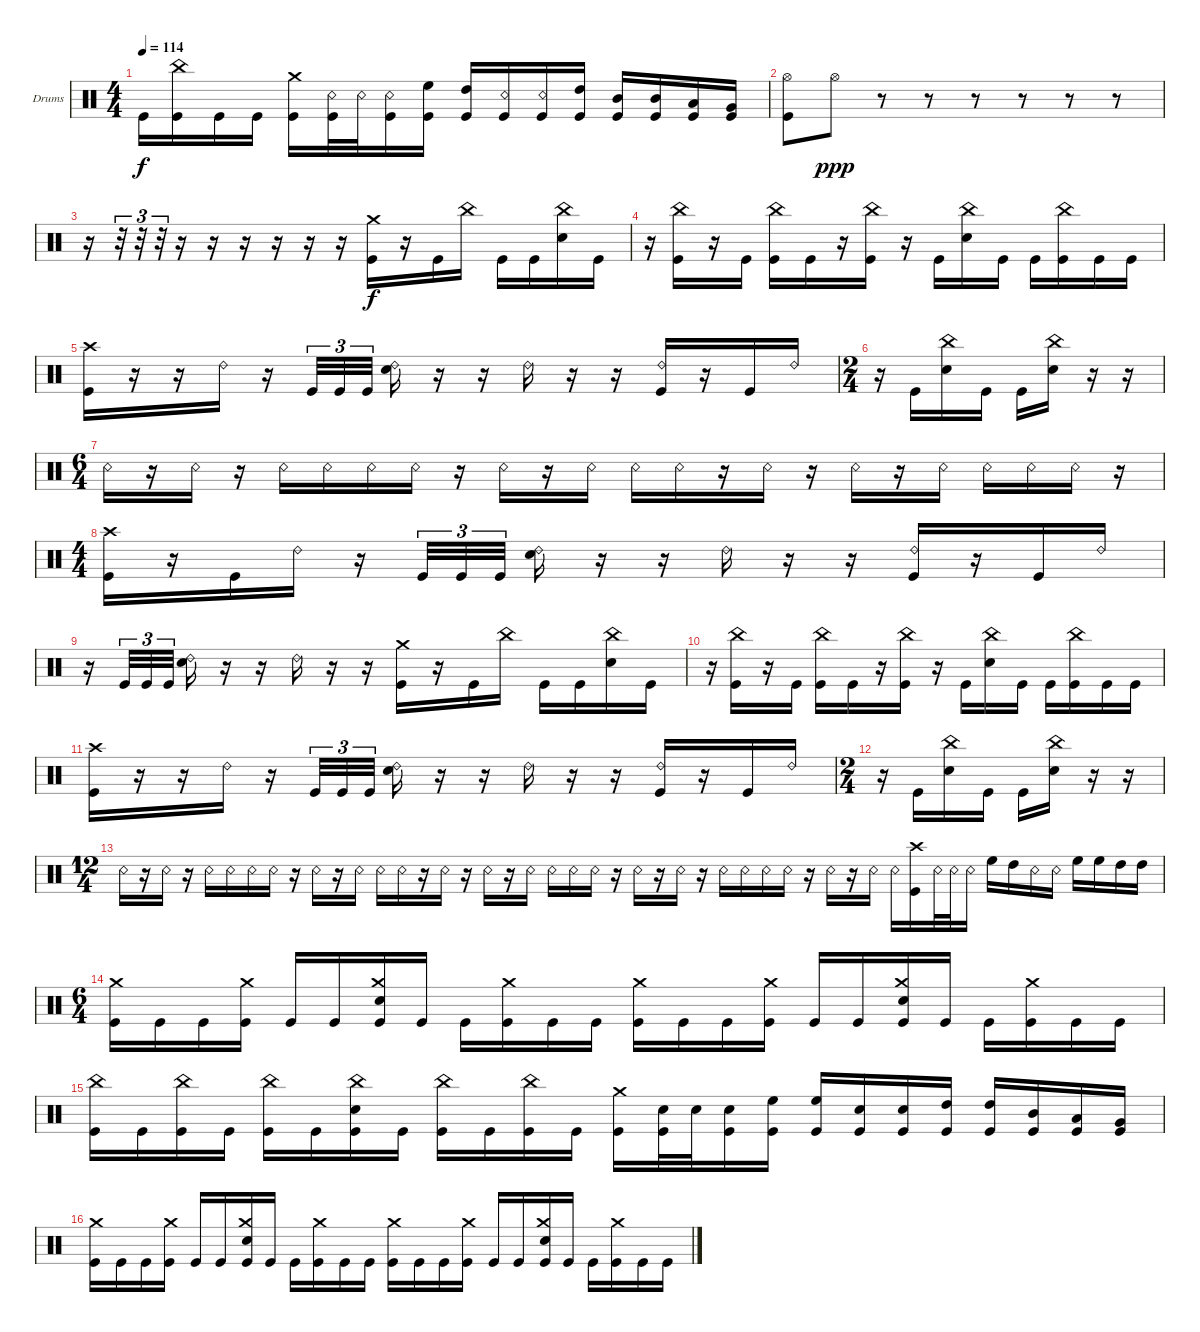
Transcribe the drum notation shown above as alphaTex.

\bracketExtendMode groupsimilarinstruments
\firstSystemTrackNameOrientation horizontal
\otherSystemsTrackNameOrientation horizontal
\track ("Drumkit" "Drums") {instrument percussion}
\staff {score}
\articulation defaults
\ts (4 4)
\tempo 114
\clef neutral
\ks c "Kick (hit)".16{dy f}
("China (hit)" "Kick (hit)").16 "Kick (hit)".16 "Kick (hit)".16 ("Crash medium (hit)" "Kick (hit)").16 ("Snare (rim shot)" "Kick (hit)").32 "Snare (rim shot)".32 ("Snare (rim shot)" "Kick (hit)").16 ("High Floor Tom (hit)" "Kick (hit)").16 ("High Tom (hit)" "Kick (hit)").16 ("Snare (rim shot)" "Kick (hit)").16 ("Snare (rim shot)" "Kick (hit)").16 ("High Tom (hit)" "Kick (hit)").16 ("Mid Tom (hit)" "Kick (hit)").16 ("Mid Tom (hit)" "Kick (hit)").16 ("Low Tom (hit)" "Kick (hit)").16 ("Very Low Tom (hit)" "Kick (hit)").16 |
("Hi-Hat (open)" "Kick (hit)").8 "Hi-Hat (open)".8{dy ppp} r.8 r.8 r.8 r.8 r.8 r.8 |
r.16 r.32{tu (3 2)} r.32{tu (3 2)} r.32{tu (3 2)} r.16 r.16 r.16 r.16 r.16 r.16 ("Crash medium (hit)" "Kick (hit)").16{dy f} r.16 "Kick (hit)".16 "China (hit)".16 "Kick (hit)".16 "Kick (hit)".16 ("China (hit)" "Snare (hit) 2").16 "Kick (hit)".16 |
r.16 ("China (hit)" "Kick (hit)").16 r.16 "Kick (hit)".16 ("China (hit)" "Kick (hit)").16 "Kick (hit)".16 r.16 ("China (hit)" "Kick (hit)").16 r.16 "Kick (hit)".16 ("China (hit)" "Snare (hit) 2").16 "Kick (hit)".16 "Kick (hit)".16 ("China (hit)" "Kick (hit)").16 "Kick (hit)".16 "Kick (hit)".16 |
("Crash high (hit)" "Kick (hit)").16 r.16 r.16 "Ride (bell) 2".16 r.16 "Kick (hit)".32{tu (3 2)} "Kick (hit)".32{tu (3 2)} "Kick (hit)".32{tu (3 2)} ("Ride (bell) 2" "Snare (hit) 2").16 r.16 r.16 "Ride (bell) 2".16 r.16 r.16 ("Ride (bell) 2" "Kick (hit)").16 r.16 "Kick (hit)".16 "Ride (bell) 2".16 |
\ts (2 4)
r.16 "Kick (hit)".16 ("China (hit)" "Snare (hit) 2").16 "Kick (hit)".16 "Kick (hit)".16 ("China (hit)" "Snare (hit) 2").16 r.16 r.16 |
\ts (6 4)
"Snare (rim shot)".16 r.16 "Snare (rim shot)".16 r.16 "Snare (rim shot)".16 "Snare (rim shot)".16 "Snare (rim shot)".16 "Snare (rim shot)".16 r.16 "Snare (rim shot)".16 r.16 "Snare (rim shot)".16 "Snare (rim shot)".16 "Snare (rim shot)".16 r.16 "Snare (rim shot)".16 r.16 "Snare (rim shot)".16 r.16 "Snare (rim shot)".16 "Snare (rim shot)".16 "Snare (rim shot)".16 "Snare (rim shot)".16 r.16 |
\ts (4 4)
("Crash high (hit)" "Kick (hit)").16 r.16 "Kick (hit)".16 "Ride (bell) 2".16 r.16 "Kick (hit)".32{tu (3 2)} "Kick (hit)".32{tu (3 2)} "Kick (hit)".32{tu (3 2)} ("Ride (bell) 2" "Snare (hit) 2").16 r.16 r.16 "Ride (bell) 2".16 r.16 r.16 ("Ride (bell) 2" "Kick (hit)").16 r.16 "Kick (hit)".16 "Ride (bell) 2".16 |
r.16 "Kick (hit)".32{tu (3 2)} "Kick (hit)".32{tu (3 2)} "Kick (hit)".32{tu (3 2)} ("Ride (bell) 2" "Snare (hit) 2").16 r.16 r.16 "Ride (bell) 2".16 r.16 r.16 ("Crash medium (hit)" "Kick (hit)").16 r.16 "Kick (hit)".16 "China (hit)".16 "Kick (hit)".16 "Kick (hit)".16 ("China (hit)" "Snare (hit) 2").16 "Kick (hit)".16 |
r.16 ("China (hit)" "Kick (hit)").16 r.16 "Kick (hit)".16 ("China (hit)" "Kick (hit)").16 "Kick (hit)".16 r.16 ("China (hit)" "Kick (hit)").16 r.16 "Kick (hit)".16 ("China (hit)" "Snare (hit) 2").16 "Kick (hit)".16 "Kick (hit)".16 ("China (hit)" "Kick (hit)").16 "Kick (hit)".16 "Kick (hit)".16 |
("Crash high (hit)" "Kick (hit)").16 r.16 r.16 "Ride (bell) 2".16 r.16 "Kick (hit)".32{tu (3 2)} "Kick (hit)".32{tu (3 2)} "Kick (hit)".32{tu (3 2)} ("Ride (bell) 2" "Snare (hit) 2").16 r.16 r.16 "Ride (bell) 2".16 r.16 r.16 ("Ride (bell) 2" "Kick (hit)").16 r.16 "Kick (hit)".16 "Ride (bell) 2".16 |
\ts (2 4)
r.16 "Kick (hit)".16 ("China (hit)" "Snare (hit) 2").16 "Kick (hit)".16 "Kick (hit)".16 ("China (hit)" "Snare (hit) 2").16 r.16 r.16 |
\ts (12 4)
"Snare (rim shot)".16 r.16 "Snare (rim shot)".16 r.16 "Snare (rim shot)".16 "Snare (rim shot)".16 "Snare (rim shot)".16 "Snare (rim shot)".16 r.16 "Snare (rim shot)".16 r.16 "Snare (rim shot)".16 "Snare (rim shot)".16 "Snare (rim shot)".16 r.16 "Snare (rim shot)".16 r.16 "Snare (rim shot)".16 r.16 "Snare (rim shot)".16 "Snare (rim shot)".16 "Snare (rim shot)".16 "Snare (rim shot)".16 r.16 "Snare (rim shot)".16 r.16 "Snare (rim shot)".16 r.16 "Snare (rim shot)".16 "Snare (rim shot)".16 "Snare (rim shot)".16 "Snare (rim shot)".16 r.16 "Snare (rim shot)".16 r.16 "Snare (rim shot)".16 "Snare (rim shot)".16 ("Crash high (hit)" "Kick (hit)").16 "Snare (rim shot)".32 "Snare (rim shot)".32 "Snare (rim shot)".16 "High Floor Tom (hit)".16 "High Tom (hit)".16 "Snare (rim shot)".16 "Snare (rim shot)".16 "High Floor Tom (hit)".16 "High Floor Tom (hit)".16 "High Tom (hit)".16 "High Tom (hit)".16 |
\ts (6 4)
("Crash medium (hit)" "Kick (hit)").16 "Kick (hit)".16 "Kick (hit)".16 ("Crash medium (hit)" "Kick (hit)").16 "Kick (hit)".16 "Kick (hit)".16 ("Crash medium (hit)" "Snare (hit) 2" "Kick (hit)").16 "Kick (hit)".16 "Kick (hit)".16 ("Crash medium (hit)" "Kick (hit)").16 "Kick (hit)".16 "Kick (hit)".16 ("Crash medium (hit)" "Kick (hit)").16 "Kick (hit)".16 "Kick (hit)".16 ("Crash medium (hit)" "Kick (hit)").16 "Kick (hit)".16 "Kick (hit)".16 ("Crash medium (hit)" "Snare (hit) 2" "Kick (hit)").16 "Kick (hit)".16 "Kick (hit)".16 ("Crash medium (hit)" "Kick (hit)").16 "Kick (hit)".16 "Kick (hit)".16 |
("China (hit)" "Kick (hit)").16 "Kick (hit)".16 ("China (hit)" "Kick (hit)").16 "Kick (hit)".16 ("China (hit)" "Kick (hit)").16 "Kick (hit)".16 ("China (hit)" "Snare (hit) 2" "Kick (hit)").16 "Kick (hit)".16 ("China (hit)" "Kick (hit)").16 "Kick (hit)".16 ("China (hit)" "Kick (hit)").16 "Kick (hit)".16 ("Crash medium (hit)" "Kick (hit)").16 ("Snare (hit) 2" "Kick (hit)").32 "Snare (hit) 2".32 ("Snare (hit) 2" "Kick (hit)").16 ("High Floor Tom (hit)" "Kick (hit)").16 ("High Floor Tom (hit)" "Kick (hit)").16 ("Snare (hit) 2" "Kick (hit)").16 ("Snare (hit) 2" "Kick (hit)").16 ("High Tom (hit)" "Kick (hit)").16 ("High Tom (hit)" "Kick (hit)").16 ("Mid Tom (hit)" "Kick (hit)").16 ("Low Tom (hit)" "Kick (hit)").16 ("Very Low Tom (hit)" "Kick (hit)").16 |
("Crash medium (hit)" "Kick (hit)").16 "Kick (hit)".16 "Kick (hit)".16 ("Crash medium (hit)" "Kick (hit)").16 "Kick (hit)".16 "Kick (hit)".16 ("Crash medium (hit)" "Snare (hit) 2" "Kick (hit)").16 "Kick (hit)".16 "Kick (hit)".16 ("Crash medium (hit)" "Kick (hit)").16 "Kick (hit)".16 "Kick (hit)".16 ("Crash medium (hit)" "Kick (hit)").16 "Kick (hit)".16 "Kick (hit)".16 ("Crash medium (hit)" "Kick (hit)").16 "Kick (hit)".16 "Kick (hit)".16 ("Crash medium (hit)" "Snare (hit) 2" "Kick (hit)").16 "Kick (hit)".16 "Kick (hit)".16 ("Crash medium (hit)" "Kick (hit)").16 "Kick (hit)".16 "Kick (hit)".16
